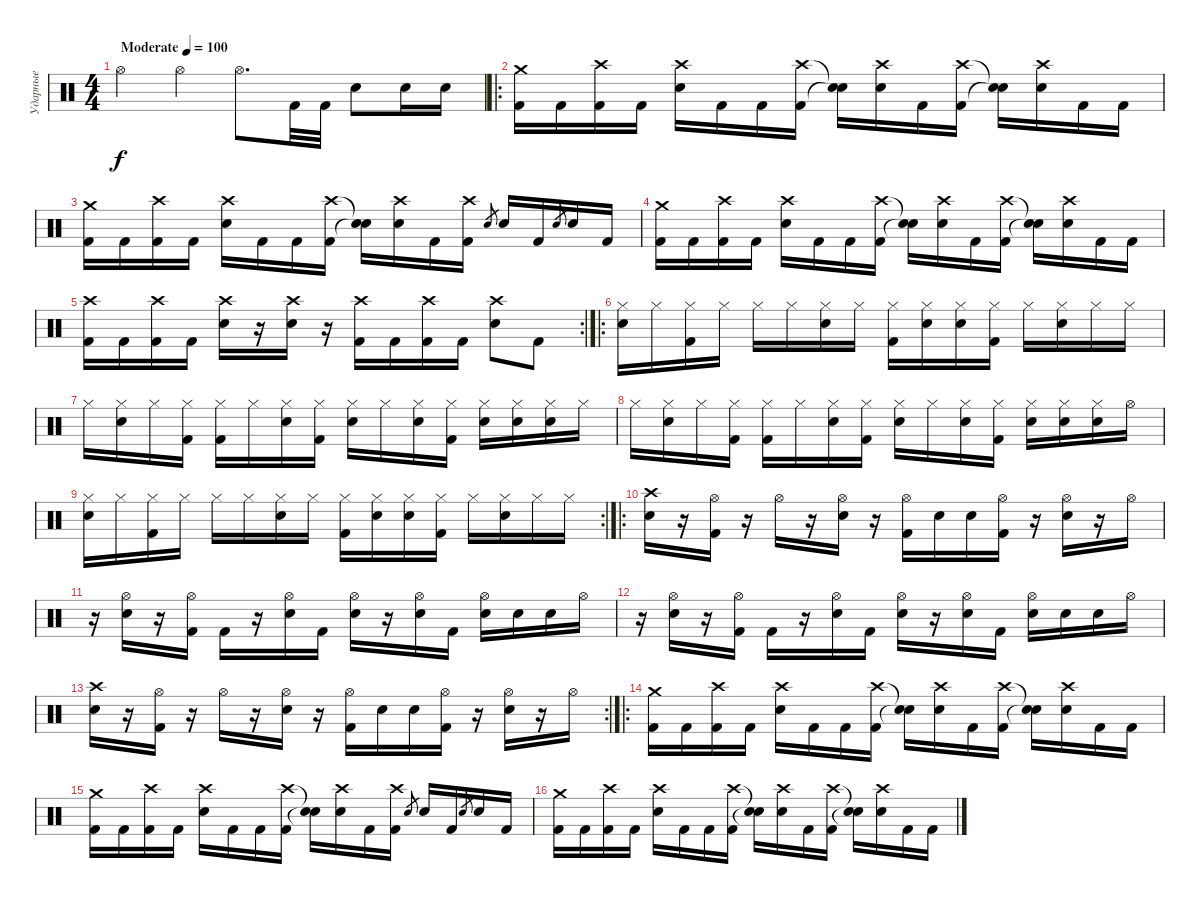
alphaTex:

\track ("Ударные" "Ударные") {instrument percussion}
\staff {score}
\articulation defaults
\ts (4 4)
\tempo (100 "Moderate")
\clef neutral
\ks c "Hi-Hat (open)".4{dy f} "Hi-Hat (open)".4 "Hi-Hat (open)".8{d} "Kick (hit) 2".32 "Kick (hit) 2".32 "Electric Snare (hit)".8 "Electric Snare (hit)".16 "Electric Snare (hit)".16
|
\ro
("Crash medium (hit)" "Kick (hit) 2").16 "Kick (hit) 2".16 ("Crash high (hit)" "Kick (hit) 2").16 "Kick (hit) 2".16 ("Crash high (hit)" "Electric Snare (hit)").16 "Kick (hit) 2".16 "Kick (hit) 2".16 ("Crash high (hit)" "Kick (hit) 2").16 ("Snare (hit)"{t} "Snare (hit)"{t}).16 ("Crash high (hit)" "Electric Snare (hit)").16 "Kick (hit) 2".16 ("Crash high (hit)" "Kick (hit) 2").16 ("Snare (hit)"{t} "Snare (hit)"{t}).16 ("Crash high (hit)" "Electric Snare (hit)").16 "Kick (hit) 2".16 "Kick (hit) 2".16 |
("Crash medium (hit)" "Kick (hit) 2").16 "Kick (hit) 2".16 ("Crash high (hit)" "Kick (hit) 2").16 "Kick (hit) 2".16 ("Crash high (hit)" "Electric Snare (hit)").16 "Kick (hit) 2".16 "Kick (hit) 2".16 ("Crash high (hit)" "Kick (hit) 2").16 ("Snare (hit)"{t} "Snare (hit)"{t}).16 ("Crash high (hit)" "Electric Snare (hit)").16 "Kick (hit) 2".16 ("Crash high (hit)" "Kick (hit) 2").16 "Electric Snare (hit)".8{gr} "Electric Snare (hit)".16 "Kick (hit) 2".16 "Electric Snare (hit)".8{gr} "Electric Snare (hit)".16 "Kick (hit) 2".16 |
("Crash medium (hit)" "Kick (hit) 2").16 "Kick (hit) 2".16 ("Crash high (hit)" "Kick (hit) 2").16 "Kick (hit) 2".16 ("Crash high (hit)" "Electric Snare (hit)").16 "Kick (hit) 2".16 "Kick (hit) 2".16 ("Crash high (hit)" "Kick (hit) 2").16 ("Snare (hit)"{t} "Snare (hit)"{t}).16 ("Crash high (hit)" "Electric Snare (hit)").16 "Kick (hit) 2".16 ("Crash high (hit)" "Kick (hit) 2").16 ("Snare (hit)"{t} "Snare (hit)"{t}).16 ("Crash high (hit)" "Electric Snare (hit)").16 "Kick (hit) 2".16 "Kick (hit) 2".16 |
\rc 2
("Crash high (hit)" "Kick (hit) 2").16 "Kick (hit) 2".16 ("Crash high (hit)" "Kick (hit) 2").16 "Kick (hit) 2".16 ("Crash high (hit)" "Electric Snare (hit)").16 r.16 ("Crash high (hit)" "Electric Snare (hit)").16 r.16 ("Crash high (hit)" "Kick (hit) 2").16 "Kick (hit) 2".16 ("Crash high (hit)" "Kick (hit) 2").16 "Kick (hit) 2".16 ("Crash high (hit)" "Electric Snare (hit)").8 "Kick (hit) 2".8 |
\ro
("Hi-Hat (closed)" "Electric Snare (hit)").16 "Hi-Hat (closed)".16 ("Hi-Hat (closed)" "Kick (hit) 2").16 "Hi-Hat (closed)".16 "Hi-Hat (closed)".16 "Hi-Hat (closed)".16 ("Hi-Hat (closed)" "Electric Snare (hit)").16 "Hi-Hat (closed)".16 ("Hi-Hat (closed)" "Kick (hit) 2").16 ("Hi-Hat (closed)" "Electric Snare (hit)").16 ("Hi-Hat (closed)" "Electric Snare (hit)").16 ("Hi-Hat (closed)" "Kick (hit) 2").16 "Hi-Hat (closed)".16 ("Hi-Hat (closed)" "Electric Snare (hit)").16 "Hi-Hat (closed)".16 "Hi-Hat (closed)".16 |
"Hi-Hat (closed)".16 ("Hi-Hat (closed)" "Electric Snare (hit)").16 "Hi-Hat (closed)".16 ("Hi-Hat (closed)" "Kick (hit) 2").16 ("Hi-Hat (closed)" "Kick (hit) 2").16 "Hi-Hat (closed)".16 ("Hi-Hat (closed)" "Electric Snare (hit)").16 ("Hi-Hat (closed)" "Kick (hit) 2").16 ("Hi-Hat (closed)" "Electric Snare (hit)").16 "Hi-Hat (closed)".16 ("Hi-Hat (closed)" "Electric Snare (hit)").16 ("Hi-Hat (closed)" "Kick (hit) 2").16 ("Hi-Hat (closed)" "Electric Snare (hit)").16 ("Hi-Hat (closed)" "Electric Snare (hit)").16 ("Hi-Hat (closed)" "Electric Snare (hit)").16 "Hi-Hat (closed)".16 |
"Hi-Hat (closed)".16 ("Hi-Hat (closed)" "Electric Snare (hit)").16 "Hi-Hat (closed)".16 ("Hi-Hat (closed)" "Kick (hit) 2").16 ("Hi-Hat (closed)" "Kick (hit) 2").16 "Hi-Hat (closed)".16 ("Hi-Hat (closed)" "Electric Snare (hit)").16 ("Hi-Hat (closed)" "Kick (hit) 2").16 ("Hi-Hat (closed)" "Electric Snare (hit)").16 "Hi-Hat (closed)".16 ("Hi-Hat (closed)" "Electric Snare (hit)").16 ("Hi-Hat (closed)" "Kick (hit) 2").16 ("Hi-Hat (closed)" "Electric Snare (hit)").16 ("Hi-Hat (closed)" "Electric Snare (hit)").16 ("Hi-Hat (closed)" "Electric Snare (hit)").16 "Hi-Hat (open)".16 |
\rc 2
("Hi-Hat (closed)" "Electric Snare (hit)").16 "Hi-Hat (closed)".16 ("Hi-Hat (closed)" "Kick (hit) 2").16 "Hi-Hat (closed)".16 "Hi-Hat (closed)".16 "Hi-Hat (closed)".16 ("Hi-Hat (closed)" "Electric Snare (hit)").16 "Hi-Hat (closed)".16 ("Hi-Hat (closed)" "Kick (hit) 2").16 ("Hi-Hat (closed)" "Electric Snare (hit)").16 ("Hi-Hat (closed)" "Electric Snare (hit)").16 ("Hi-Hat (closed)" "Kick (hit) 2").16 "Hi-Hat (closed)".16 ("Hi-Hat (closed)" "Electric Snare (hit)").16 "Hi-Hat (closed)".16 "Hi-Hat (closed)".16 |
\ro
("Crash high (hit)" "Electric Snare (hit)").16 r.16 ("Hi-Hat (open)" "Kick (hit) 2").16 r.16 "Hi-Hat (open)".16 r.16 ("Hi-Hat (open)" "Electric Snare (hit)").16 r.16 ("Hi-Hat (open)" "Kick (hit) 2").16 "Electric Snare (hit)".16 "Electric Snare (hit)".16 ("Hi-Hat (open)" "Kick (hit) 2").16 r.16 ("Hi-Hat (open)" "Electric Snare (hit)").16 r.16 "Hi-Hat (open)".16 |
r.16 ("Hi-Hat (open)" "Electric Snare (hit)").16 r.16 ("Hi-Hat (open)" "Kick (hit) 2").16 "Kick (hit) 2".16 r.16 ("Hi-Hat (open)" "Electric Snare (hit)").16 "Kick (hit) 2".16 ("Hi-Hat (open)" "Electric Snare (hit)").16 r.16 ("Hi-Hat (open)" "Electric Snare (hit)").16 "Kick (hit) 2".16 ("Hi-Hat (open)" "Electric Snare (hit)").16 "Electric Snare (hit)".16 "Electric Snare (hit)".16 "Hi-Hat (open)".16 |
r.16 ("Hi-Hat (open)" "Electric Snare (hit)").16 r.16 ("Hi-Hat (open)" "Kick (hit) 2").16 "Kick (hit) 2".16 r.16 ("Hi-Hat (open)" "Electric Snare (hit)").16 "Kick (hit) 2".16 ("Hi-Hat (open)" "Electric Snare (hit)").16 r.16 ("Hi-Hat (open)" "Electric Snare (hit)").16 "Kick (hit) 2".16 ("Hi-Hat (open)" "Electric Snare (hit)").16 "Electric Snare (hit)".16 "Electric Snare (hit)".16 "Hi-Hat (open)".16 |
\rc 2
("Crash high (hit)" "Electric Snare (hit)").16 r.16 ("Hi-Hat (open)" "Kick (hit) 2").16 r.16 "Hi-Hat (open)".16 r.16 ("Hi-Hat (open)" "Electric Snare (hit)").16 r.16 ("Hi-Hat (open)" "Kick (hit) 2").16 "Electric Snare (hit)".16 "Electric Snare (hit)".16 ("Hi-Hat (open)" "Kick (hit) 2").16 r.16 ("Hi-Hat (open)" "Electric Snare (hit)").16 r.16 "Hi-Hat (open)".16 |
\ro
("Crash medium (hit)" "Kick (hit) 2").16 "Kick (hit) 2".16 ("Crash high (hit)" "Kick (hit) 2").16 "Kick (hit) 2".16 ("Crash high (hit)" "Electric Snare (hit)").16 "Kick (hit) 2".16 "Kick (hit) 2".16 ("Crash high (hit)" "Kick (hit) 2").16 ("Snare (hit)"{t} "Snare (hit)"{t}).16 ("Crash high (hit)" "Electric Snare (hit)").16 "Kick (hit) 2".16 ("Crash high (hit)" "Kick (hit) 2").16 ("Snare (hit)"{t} "Snare (hit)"{t}).16 ("Crash high (hit)" "Electric Snare (hit)").16 "Kick (hit) 2".16 "Kick (hit) 2".16 |
("Crash medium (hit)" "Kick (hit) 2").16 "Kick (hit) 2".16 ("Crash high (hit)" "Kick (hit) 2").16 "Kick (hit) 2".16 ("Crash high (hit)" "Electric Snare (hit)").16 "Kick (hit) 2".16 "Kick (hit) 2".16 ("Crash high (hit)" "Kick (hit) 2").16 ("Snare (hit)"{t} "Snare (hit)"{t}).16 ("Crash high (hit)" "Electric Snare (hit)").16 "Kick (hit) 2".16 ("Crash high (hit)" "Kick (hit) 2").16 "Electric Snare (hit)".8{gr} "Electric Snare (hit)".16 "Kick (hit) 2".16 "Electric Snare (hit)".8{gr} "Electric Snare (hit)".16 "Kick (hit) 2".16 |
("Crash medium (hit)" "Kick (hit) 2").16 "Kick (hit) 2".16 ("Crash high (hit)" "Kick (hit) 2").16 "Kick (hit) 2".16 ("Crash high (hit)" "Electric Snare (hit)").16 "Kick (hit) 2".16 "Kick (hit) 2".16 ("Crash high (hit)" "Kick (hit) 2").16 ("Snare (hit)"{t} "Snare (hit)"{t}).16 ("Crash high (hit)" "Electric Snare (hit)").16 "Kick (hit) 2".16 ("Crash high (hit)" "Kick (hit) 2").16 ("Snare (hit)"{t} "Snare (hit)"{t}).16 ("Crash high (hit)" "Electric Snare (hit)").16 "Kick (hit) 2".16 "Kick (hit) 2".16
